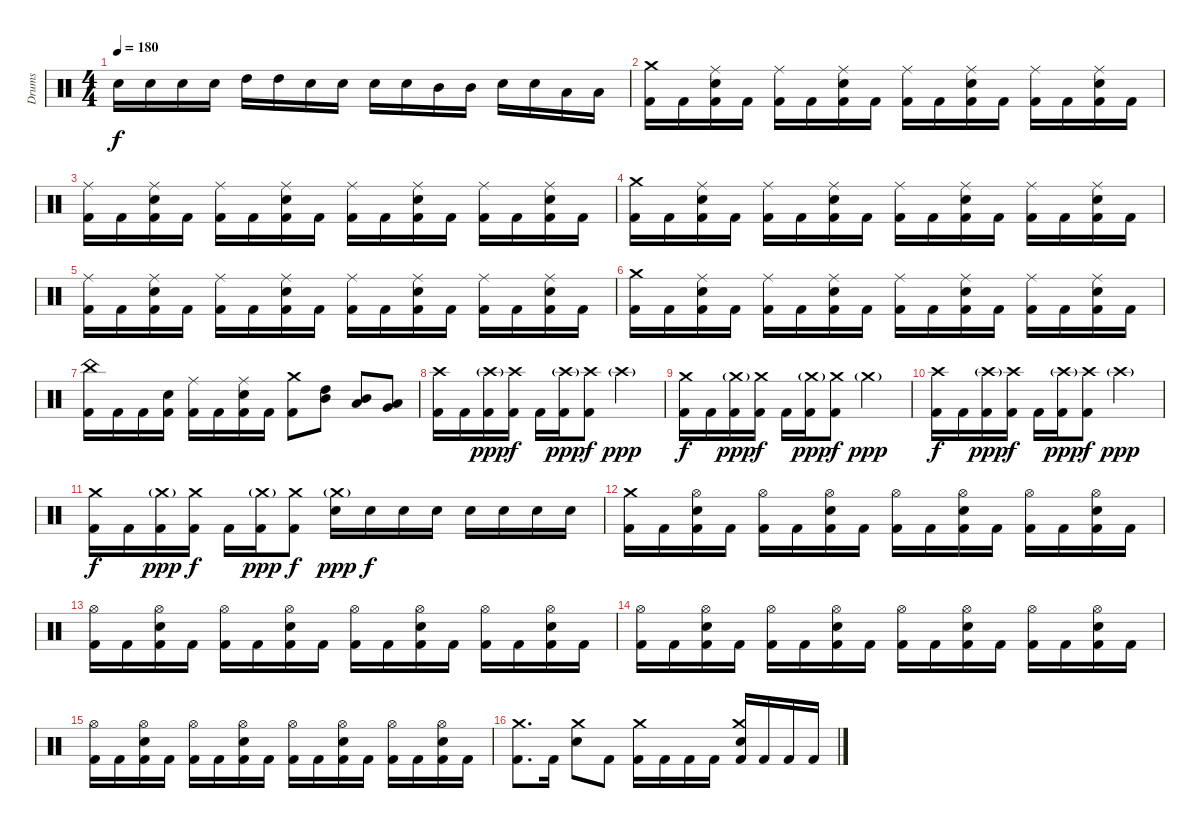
\track ("Drums" "Drums") {instrument percussion}
\staff {score}
\articulation defaults
\ts (4 4)
\tempo 180
\clef neutral
\ks c "Electric Snare (hit)".16{dy f} "Electric Snare (hit)".16 "Electric Snare (hit)".16 "Electric Snare (hit)".16 "High Tom (hit)".16 "High Tom (hit)".16 "Electric Snare (hit)".16 "Electric Snare (hit)".16 "Electric Snare (hit)".16 "Electric Snare (hit)".16 "Mid Tom (hit)".16 "Mid Tom (hit)".16 "Electric Snare (hit)".16 "Electric Snare (hit)".16 "Low Tom (hit)".16 "Low Tom (hit)".16
|
("Crash medium (hit)" "Kick (hit) 2").16 "Kick (hit) 2".16 ("Ride (middle)" "Electric Snare (hit)" "Kick (hit) 2").16 "Kick (hit) 2".16 ("Ride (middle)" "Kick (hit) 2").16 "Kick (hit) 2".16 ("Ride (middle)" "Electric Snare (hit)" "Kick (hit) 2").16 "Kick (hit) 2".16 ("Ride (middle)" "Kick (hit) 2").16 "Kick (hit) 2".16 ("Ride (middle)" "Electric Snare (hit)" "Kick (hit) 2").16 "Kick (hit) 2".16 ("Ride (middle)" "Kick (hit) 2").16 "Kick (hit) 2".16 ("Ride (middle)" "Electric Snare (hit)" "Kick (hit) 2").16 "Kick (hit) 2".16 |
("Ride (middle)" "Kick (hit) 2").16 "Kick (hit) 2".16 ("Ride (middle)" "Electric Snare (hit)" "Kick (hit) 2").16 "Kick (hit) 2".16 ("Ride (middle)" "Kick (hit) 2").16 "Kick (hit) 2".16 ("Ride (middle)" "Electric Snare (hit)" "Kick (hit) 2").16 "Kick (hit) 2".16 ("Ride (middle)" "Kick (hit) 2").16 "Kick (hit) 2".16 ("Ride (middle)" "Electric Snare (hit)" "Kick (hit) 2").16 "Kick (hit) 2".16 ("Ride (middle)" "Kick (hit) 2").16 "Kick (hit) 2".16 ("Ride (middle)" "Electric Snare (hit)" "Kick (hit) 2").16 "Kick (hit) 2".16 |
("Crash medium (hit)" "Kick (hit) 2").16 "Kick (hit) 2".16 ("Ride (middle)" "Electric Snare (hit)" "Kick (hit) 2").16 "Kick (hit) 2".16 ("Ride (middle)" "Kick (hit) 2").16 "Kick (hit) 2".16 ("Ride (middle)" "Electric Snare (hit)" "Kick (hit) 2").16 "Kick (hit) 2".16 ("Ride (middle)" "Kick (hit) 2").16 "Kick (hit) 2".16 ("Ride (middle)" "Electric Snare (hit)" "Kick (hit) 2").16 "Kick (hit) 2".16 ("Ride (middle)" "Kick (hit) 2").16 "Kick (hit) 2".16 ("Ride (middle)" "Electric Snare (hit)" "Kick (hit) 2").16 "Kick (hit) 2".16 |
("Ride (middle)" "Kick (hit) 2").16 "Kick (hit) 2".16 ("Ride (middle)" "Electric Snare (hit)" "Kick (hit) 2").16 "Kick (hit) 2".16 ("Ride (middle)" "Kick (hit) 2").16 "Kick (hit) 2".16 ("Ride (middle)" "Electric Snare (hit)" "Kick (hit) 2").16 "Kick (hit) 2".16 ("Ride (middle)" "Kick (hit) 2").16 "Kick (hit) 2".16 ("Ride (middle)" "Electric Snare (hit)" "Kick (hit) 2").16 "Kick (hit) 2".16 ("Ride (middle)" "Kick (hit) 2").16 "Kick (hit) 2".16 ("Ride (middle)" "Electric Snare (hit)" "Kick (hit) 2").16 "Kick (hit) 2".16 |
("Crash medium (hit)" "Kick (hit) 2").16 "Kick (hit) 2".16 ("Ride (middle)" "Electric Snare (hit)" "Kick (hit) 2").16 "Kick (hit) 2".16 ("Ride (middle)" "Kick (hit) 2").16 "Kick (hit) 2".16 ("Ride (middle)" "Electric Snare (hit)" "Kick (hit) 2").16 "Kick (hit) 2".16 ("Ride (middle)" "Kick (hit) 2").16 "Kick (hit) 2".16 ("Ride (middle)" "Electric Snare (hit)" "Kick (hit) 2").16 "Kick (hit) 2".16 ("Ride (middle)" "Kick (hit) 2").16 "Kick (hit) 2".16 ("Ride (middle)" "Electric Snare (hit)" "Kick (hit) 2").16 "Kick (hit) 2".16 |
("China (hit)" "Kick (hit) 2").16 "Kick (hit) 2".16 "Kick (hit) 2".16 ("Electric Snare (hit)" "Kick (hit) 2").16 ("Ride (middle)" "Kick (hit) 2").16 "Kick (hit) 2".16 ("Ride (middle)" "Electric Snare (hit)" "Kick (hit) 2").16 "Kick (hit) 2".16 ("Crash medium (hit)" "Kick (hit) 2").8 ("High Tom (hit)" "Mid Tom (hit)").8 ("Mid Tom (hit)" "Low Tom (hit)").8 ("Low Tom (hit)" "Very Low Tom (hit)").8 |
("Crash high (hit)" "Kick (hit) 2").16 "Kick (hit) 2".16 ("Crash high (hit)"{g} "Kick (hit) 2").16{dy ppp} ("Crash high (hit)" "Kick (hit) 2").16{dy f} "Kick (hit) 2".16 ("Crash high (hit)"{g} "Kick (hit) 2").16{dy ppp} ("Crash high (hit)" "Kick (hit) 2").8{dy f} "Crash high (hit)"{g}.2{dy ppp} |
("Crash medium (hit)" "Kick (hit) 2").16{dy f} "Kick (hit) 2".16 ("Crash medium (hit)"{g} "Kick (hit) 2").16{dy ppp} ("Crash medium (hit)" "Kick (hit) 2").16{dy f} "Kick (hit) 2".16 ("Crash medium (hit)"{g} "Kick (hit) 2").16{dy ppp} ("Crash medium (hit)" "Kick (hit) 2").8{dy f} "Crash medium (hit)"{g}.2{dy ppp} |
("Crash high (hit)" "Kick (hit) 2").16{dy f} "Kick (hit) 2".16 ("Crash high (hit)"{g} "Kick (hit) 2").16{dy ppp} ("Crash high (hit)" "Kick (hit) 2").16{dy f} "Kick (hit) 2".16 ("Crash high (hit)"{g} "Kick (hit) 2").16{dy ppp} ("Crash high (hit)" "Kick (hit) 2").8{dy f} "Crash high (hit)"{g}.2{dy ppp} |
("Crash medium (hit)" "Kick (hit) 2").16{dy f} "Kick (hit) 2".16 ("Crash medium (hit)"{g} "Kick (hit) 2").16{dy ppp} ("Crash medium (hit)" "Kick (hit) 2").16{dy f} "Kick (hit) 2".16 ("Crash medium (hit)"{g} "Kick (hit) 2").16{dy ppp} ("Crash medium (hit)" "Kick (hit) 2").8{dy f} ("Crash medium (hit)"{g} "Electric Snare (hit)").16{dy ppp} "Electric Snare (hit)".16{dy f} "Electric Snare (hit)".16 "Electric Snare (hit)".16 "Electric Snare (hit)".16 "Electric Snare (hit)".16 "Electric Snare (hit)".16 "Electric Snare (hit)".16 |
("Crash medium (hit)" "Kick (hit) 2").16 "Kick (hit) 2".16 ("Hi-Hat (open)" "Electric Snare (hit)" "Kick (hit) 2").16 "Kick (hit) 2".16 ("Hi-Hat (open)" "Kick (hit) 2").16 "Kick (hit) 2".16 ("Hi-Hat (open)" "Electric Snare (hit)" "Kick (hit) 2").16 "Kick (hit) 2".16 ("Hi-Hat (open)" "Kick (hit) 2").16 "Kick (hit) 2".16 ("Hi-Hat (open)" "Electric Snare (hit)" "Kick (hit) 2").16 "Kick (hit) 2".16 ("Hi-Hat (open)" "Kick (hit) 2").16 "Kick (hit) 2".16 ("Hi-Hat (open)" "Electric Snare (hit)" "Kick (hit) 2").16 "Kick (hit) 2".16 |
("Hi-Hat (open)" "Kick (hit) 2").16 "Kick (hit) 2".16 ("Hi-Hat (open)" "Electric Snare (hit)" "Kick (hit) 2").16 "Kick (hit) 2".16 ("Hi-Hat (open)" "Kick (hit) 2").16 "Kick (hit) 2".16 ("Hi-Hat (open)" "Electric Snare (hit)" "Kick (hit) 2").16 "Kick (hit) 2".16 ("Hi-Hat (open)" "Kick (hit) 2").16 "Kick (hit) 2".16 ("Hi-Hat (open)" "Electric Snare (hit)" "Kick (hit) 2").16 "Kick (hit) 2".16 ("Hi-Hat (open)" "Kick (hit) 2").16 "Kick (hit) 2".16 ("Hi-Hat (open)" "Electric Snare (hit)" "Kick (hit) 2").16 "Kick (hit) 2".16 |
("Hi-Hat (open)" "Kick (hit) 2").16 "Kick (hit) 2".16 ("Hi-Hat (open)" "Electric Snare (hit)" "Kick (hit) 2").16 "Kick (hit) 2".16 ("Hi-Hat (open)" "Kick (hit) 2").16 "Kick (hit) 2".16 ("Hi-Hat (open)" "Electric Snare (hit)" "Kick (hit) 2").16 "Kick (hit) 2".16 ("Hi-Hat (open)" "Kick (hit) 2").16 "Kick (hit) 2".16 ("Hi-Hat (open)" "Electric Snare (hit)" "Kick (hit) 2").16 "Kick (hit) 2".16 ("Hi-Hat (open)" "Kick (hit) 2").16 "Kick (hit) 2".16 ("Hi-Hat (open)" "Electric Snare (hit)" "Kick (hit) 2").16 "Kick (hit) 2".16 |
("Hi-Hat (open)" "Kick (hit) 2").16 "Kick (hit) 2".16 ("Hi-Hat (open)" "Electric Snare (hit)" "Kick (hit) 2").16 "Kick (hit) 2".16 ("Hi-Hat (open)" "Kick (hit) 2").16 "Kick (hit) 2".16 ("Hi-Hat (open)" "Electric Snare (hit)" "Kick (hit) 2").16 "Kick (hit) 2".16 ("Hi-Hat (open)" "Kick (hit) 2").16 "Kick (hit) 2".16 ("Hi-Hat (open)" "Electric Snare (hit)" "Kick (hit) 2").16 "Kick (hit) 2".16 ("Hi-Hat (open)" "Kick (hit) 2").16 "Kick (hit) 2".16 ("Hi-Hat (open)" "Electric Snare (hit)" "Kick (hit) 2").16 "Kick (hit) 2".16 |
("Crash medium (hit)" "Kick (hit) 2").8{d} "Kick (hit) 2".16 ("Crash medium (hit)" "Electric Snare (hit)").8 "Kick (hit) 2".8 ("Crash medium (hit)" "Kick (hit) 2").16 "Kick (hit) 2".16 "Kick (hit) 2".16 "Kick (hit) 2".16 ("Crash medium (hit)" "Electric Snare (hit)" "Kick (hit) 2").16 "Kick (hit) 2".16 "Kick (hit) 2".16 "Kick (hit) 2".16
